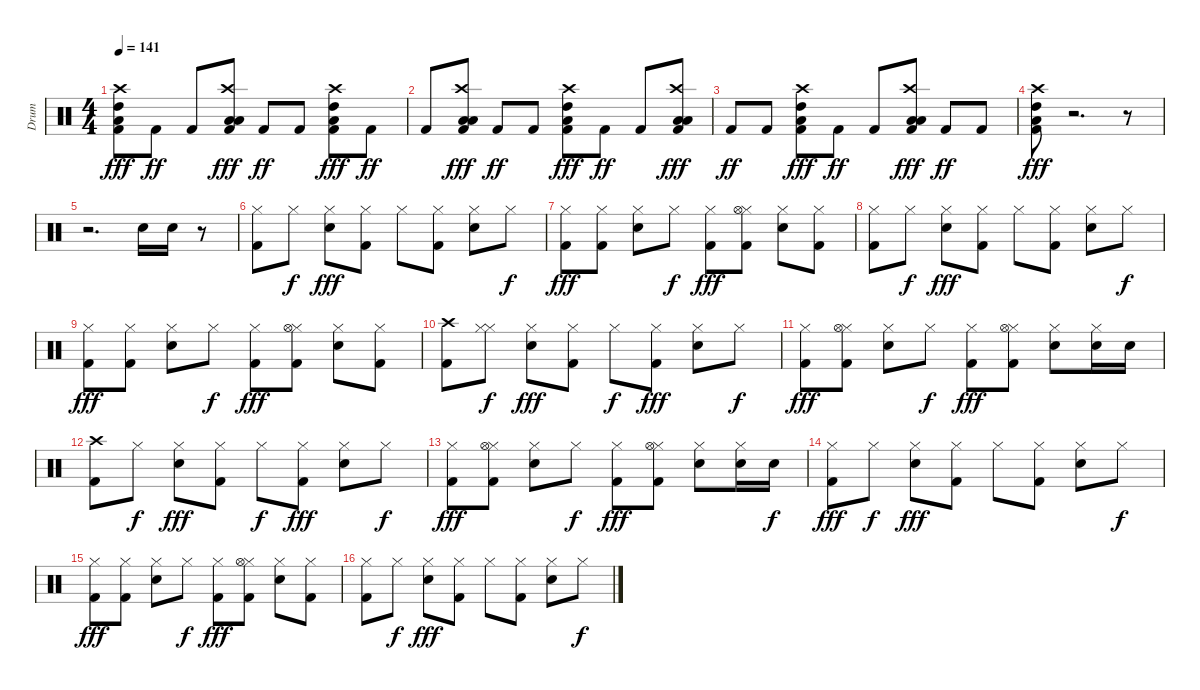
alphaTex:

\track ("Drum" "Drum") {instrument percussion}
\staff {score}
\articulation defaults
\ts (4 4)
\tempo 141
\clef neutral
\ks c
("Kick (hit) 2" "High Tom (hit)" "Low Tom (hit)" "Crash high (hit)").8{dy fff} "Kick (hit) 2".8{dy ff} "Kick (hit) 2".8 ("Kick (hit) 2" "Low Tom (hit)" "Low Floor Tom (hit)" "Crash high (hit)").8{dy fff} "Kick (hit) 2".8{dy ff} "Kick (hit) 2".8 ("Kick (hit) 2" "High Tom (hit)" "Crash high (hit)" "Low Tom (hit)").8{dy fff} "Kick (hit) 2".8{dy ff} |
"Kick (hit) 2".8 ("Kick (hit) 2" "Low Tom (hit)" "Low Floor Tom (hit)" "Crash high (hit)").8{dy fff} "Kick (hit) 2".8{dy ff} "Kick (hit) 2".8 ("High Tom (hit)" "Kick (hit) 2" "Low Tom (hit)" "Crash high (hit)").8{dy fff} "Kick (hit) 2".8{dy ff} "Kick (hit) 2".8 ("Kick (hit) 2" "Low Tom (hit)" "Low Floor Tom (hit)" "Crash high (hit)").8{dy fff} |
"Kick (hit) 2".8{dy ff} "Kick (hit) 2".8 ("Kick (hit) 2" "High Tom (hit)" "Low Tom (hit)" "Crash high (hit)").8{dy fff} "Kick (hit) 2".8{dy ff} "Kick (hit) 2".8 ("Kick (hit) 2" "Low Tom (hit)" "Low Floor Tom (hit)" "Crash high (hit)").8{dy fff} "Kick (hit) 2".8{dy ff} "Kick (hit) 2".8 |
("Kick (hit) 2" "High Tom (hit)" "Low Tom (hit)" "Crash high (hit)").8{dy fff} r.2{d} r.8 |
r.2{d} "Snare (hit) 2".16 "Snare (hit) 2".16 r.8 |
("Hi-Hat (closed)" "Kick (hit) 2").8 "Hi-Hat (closed)".8{dy f} ("Hi-Hat (closed)" "Snare (hit) 2").8{dy fff} ("Hi-Hat (closed)" "Kick (hit) 2").8 "Hi-Hat (closed)".8 ("Hi-Hat (closed)" "Kick (hit) 2").8 ("Hi-Hat (closed)" "Snare (hit) 2").8 "Hi-Hat (closed)".8{dy f} |
("Hi-Hat (closed)" "Kick (hit) 2").8{dy fff} ("Hi-Hat (closed)" "Kick (hit) 2").8 ("Hi-Hat (closed)" "Snare (hit) 2").8 "Hi-Hat (closed)".8{dy f} ("Hi-Hat (closed)" "Kick (hit) 2").8{dy fff} ("Hi-Hat (closed)" "Kick (hit) 2" "Hi-Hat (open)").8 ("Hi-Hat (closed)" "Snare (hit) 2").8 ("Hi-Hat (closed)" "Kick (hit) 2").8 |
("Hi-Hat (closed)" "Kick (hit) 2").8 "Hi-Hat (closed)".8{dy f} ("Hi-Hat (closed)" "Snare (hit) 2").8{dy fff} ("Hi-Hat (closed)" "Kick (hit) 2").8 "Hi-Hat (closed)".8 ("Hi-Hat (closed)" "Kick (hit) 2").8 ("Hi-Hat (closed)" "Snare (hit) 2").8 "Hi-Hat (closed)".8{dy f} |
("Hi-Hat (closed)" "Kick (hit) 2").8{dy fff} ("Hi-Hat (closed)" "Kick (hit) 2").8 ("Hi-Hat (closed)" "Snare (hit) 2").8 "Hi-Hat (closed)".8{dy f} ("Hi-Hat (closed)" "Kick (hit) 2").8{dy fff} ("Hi-Hat (closed)" "Kick (hit) 2" "Hi-Hat (open)").8 ("Hi-Hat (closed)" "Snare (hit) 2").8 ("Hi-Hat (closed)" "Kick (hit) 2").8 |
("Kick (hit) 2" "Crash high (hit)").8 ("Hi-Hat (closed)" "Hi-Hat (closed)").8{dy f} ("Snare (hit) 2" "Hi-Hat (closed)").8{dy fff} ("Kick (hit) 2" "Hi-Hat (closed)").8 "Hi-Hat (closed)".8{dy f} ("Kick (hit) 2" "Hi-Hat (closed)").8{dy fff} ("Snare (hit) 2" "Hi-Hat (closed)").8 "Hi-Hat (closed)".8{dy f} |
("Kick (hit) 2" "Hi-Hat (closed)").8{dy fff} ("Kick (hit) 2" "Hi-Hat (closed)" "Hi-Hat (open)").8 ("Snare (hit) 2" "Hi-Hat (closed)").8 "Hi-Hat (closed)".8{dy f} ("Kick (hit) 2" "Hi-Hat (closed)").8{dy fff} ("Kick (hit) 2" "Hi-Hat (closed)" "Hi-Hat (open)").8 ("Snare (hit) 2" "Hi-Hat (closed)").8 ("Snare (hit) 2" "Hi-Hat (closed)").16 "Snare (hit) 2".16 |
("Kick (hit) 2" "Crash high (hit)").8 "Hi-Hat (closed)".8{dy f} ("Snare (hit) 2" "Hi-Hat (closed)").8{dy fff} ("Kick (hit) 2" "Hi-Hat (closed)").8 "Hi-Hat (closed)".8{dy f} ("Kick (hit) 2" "Hi-Hat (closed)").8{dy fff} ("Snare (hit) 2" "Hi-Hat (closed)").8 "Hi-Hat (closed)".8{dy f} |
("Hi-Hat (closed)" "Kick (hit) 2").8{dy fff} ("Hi-Hat (closed)" "Kick (hit) 2" "Hi-Hat (open)").8 ("Hi-Hat (closed)" "Snare (hit) 2").8 "Hi-Hat (closed)".8{dy f} ("Hi-Hat (closed)" "Kick (hit) 2").8{dy fff} ("Hi-Hat (closed)" "Kick (hit) 2" "Hi-Hat (open)").8 ("Hi-Hat (closed)" "Snare (hit) 2").8 ("Hi-Hat (closed)" "Snare (hit) 2").16 "Snare (hit) 2".16{dy f} |
("Hi-Hat (closed)" "Kick (hit) 2").8{dy fff} "Hi-Hat (closed)".8{dy f} ("Hi-Hat (closed)" "Snare (hit) 2").8{dy fff} ("Hi-Hat (closed)" "Kick (hit) 2").8 "Hi-Hat (closed)".8 ("Hi-Hat (closed)" "Kick (hit) 2").8 ("Hi-Hat (closed)" "Snare (hit) 2").8 "Hi-Hat (closed)".8{dy f} |
("Hi-Hat (closed)" "Kick (hit) 2").8{dy fff} ("Hi-Hat (closed)" "Kick (hit) 2").8 ("Hi-Hat (closed)" "Snare (hit) 2").8 "Hi-Hat (closed)".8{dy f} ("Hi-Hat (closed)" "Kick (hit) 2").8{dy fff} ("Hi-Hat (closed)" "Kick (hit) 2" "Hi-Hat (open)").8 ("Hi-Hat (closed)" "Snare (hit) 2").8 ("Hi-Hat (closed)" "Kick (hit) 2").8 |
("Hi-Hat (closed)" "Kick (hit) 2").8 "Hi-Hat (closed)".8{dy f} ("Hi-Hat (closed)" "Snare (hit) 2").8{dy fff} ("Hi-Hat (closed)" "Kick (hit) 2").8 "Hi-Hat (closed)".8 ("Hi-Hat (closed)" "Kick (hit) 2").8 ("Hi-Hat (closed)" "Snare (hit) 2").8 "Hi-Hat (closed)".8{dy f}
